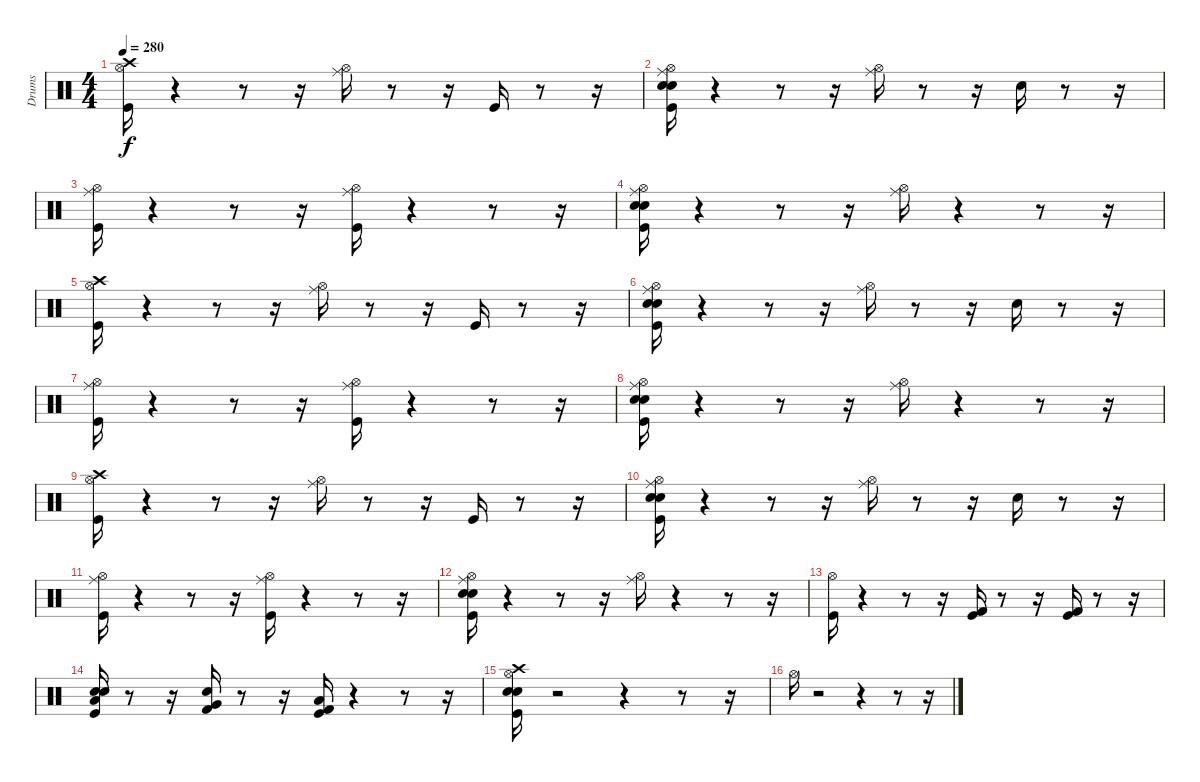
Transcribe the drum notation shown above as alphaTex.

\track ("Drums" "Drums") {instrument percussion}
\staff {score}
\articulation defaults
\ts (4 4)
\tempo 280
\clef neutral
\ks c
("Crash high (hit)" "Hi-Hat (open)" "Kick (hit)").16{dy f} r.4 r.8 r.16 ("Hi-Hat (open)" "Ride (middle)").16 r.8 r.16 "Kick (hit)".16 r.8 r.16 |
("Hi-Hat (open)" "Kick (hit)" "Snare (hit) 2" "Electric Snare (hit)" "Ride (middle)").16 r.4 r.8 r.16 ("Hi-Hat (open)" "Ride (middle)").16 r.8 r.16 "Snare (hit) 2".16 r.8 r.16 |
("Ride (middle)" "Hi-Hat (open)" "Kick (hit)").16 r.4 r.8 r.16 ("Hi-Hat (open)" "Ride (middle)" "Kick (hit)").16 r.4 r.8 r.16 |
("Ride (middle)" "Hi-Hat (open)" "Kick (hit)" "Snare (hit) 2" "Electric Snare (hit)").16 r.4 r.8 r.16 ("Hi-Hat (open)" "Ride (middle)").16 r.4 r.8 r.16 |
("Kick (hit)" "Hi-Hat (open)" "Crash high (hit)").16 r.4 r.8 r.16 ("Hi-Hat (open)" "Ride (middle)").16 r.8 r.16 "Kick (hit)".16 r.8 r.16 |
("Hi-Hat (open)" "Kick (hit)" "Snare (hit) 2" "Electric Snare (hit)" "Ride (middle)").16 r.4 r.8 r.16 ("Hi-Hat (open)" "Ride (middle)").16 r.8 r.16 "Snare (hit) 2".16 r.8 r.16 |
("Ride (middle)" "Hi-Hat (open)" "Kick (hit)").16 r.4 r.8 r.16 ("Hi-Hat (open)" "Ride (middle)" "Kick (hit)").16 r.4 r.8 r.16 |
("Ride (middle)" "Hi-Hat (open)" "Kick (hit)" "Snare (hit) 2" "Electric Snare (hit)").16 r.4 r.8 r.16 ("Hi-Hat (open)" "Ride (middle)").16 r.4 r.8 r.16 |
("Crash high (hit)" "Hi-Hat (open)" "Kick (hit)").16 r.4 r.8 r.16 ("Hi-Hat (open)" "Ride (middle)").16 r.8 r.16 "Kick (hit)".16 r.8 r.16 |
("Hi-Hat (open)" "Kick (hit)" "Snare (hit) 2" "Electric Snare (hit)" "Ride (middle)").16 r.4 r.8 r.16 ("Hi-Hat (open)" "Ride (middle)").16 r.8 r.16 "Snare (hit) 2".16 r.8 r.16 |
("Ride (middle)" "Hi-Hat (open)" "Kick (hit)").16 r.4 r.8 r.16 ("Hi-Hat (open)" "Ride (middle)" "Kick (hit)").16 r.4 r.8 r.16 |
("Ride (middle)" "Hi-Hat (open)" "Kick (hit)" "Snare (hit) 2" "Electric Snare (hit)").16 r.4 r.8 r.16 ("Hi-Hat (open)" "Ride (middle)").16 r.4 r.8 r.16 |
("Kick (hit)" "Hi-Hat (open)").16 r.4 r.8 r.16 ("Kick (hit) 2" "Kick (hit)").16 r.8 r.16 ("Kick (hit) 2" "Kick (hit)").16 r.8 r.16 |
("Electric Snare (hit)" "Snare (hit) 2" "Kick (hit)" "Low Tom (hit)").16 r.8 r.16 ("Very Low Tom (hit)" "Kick (hit) 2" "Snare (hit) 2").16 r.8 r.16 ("Low Floor Tom (hit)" "Kick (hit)" "Kick (hit) 2").16 r.4 r.8 r.16 |
("Kick (hit)" "Snare (hit) 2" "Electric Snare (hit)" "Hi-Hat (open)" "Crash high (hit)").16 r.2 r.4 r.8 r.16 |
"Hi-Hat (open)".16 r.2 r.4 r.8 r.16
